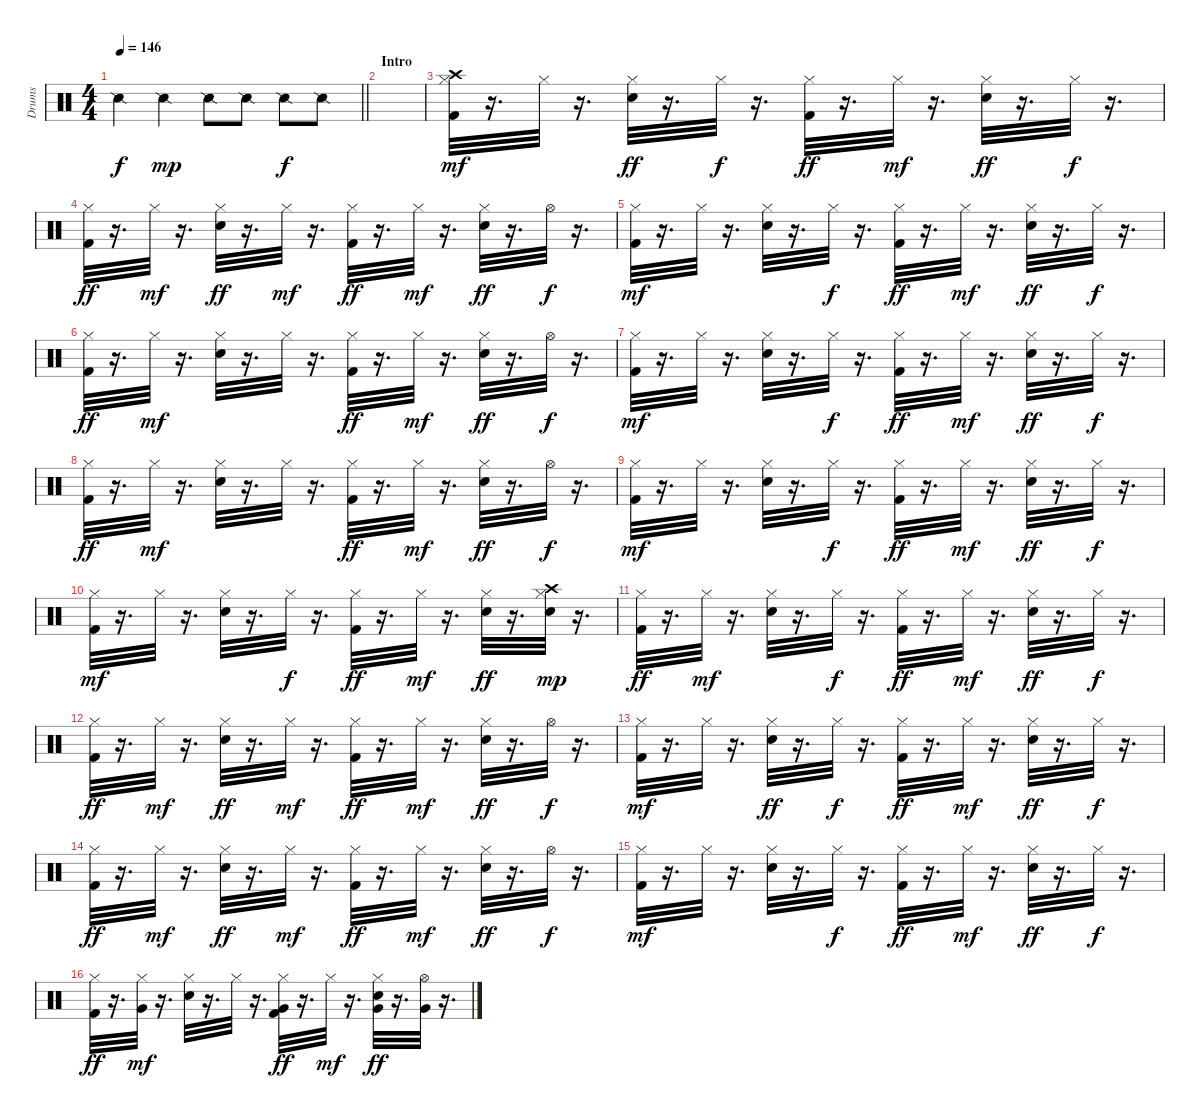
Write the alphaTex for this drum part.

\track ("Drums" "Drums") {instrument percussion}
\staff {score}
\articulation defaults
\ts (4 4)
\tempo 146
\clef neutral
\barLineRight lightlight
\ks c "Snare (side stick) 2".4{dy f} "Snare (side stick) 2".4{dy mp} "Snare (side stick) 2".8 "Snare (side stick) 2".8 "Snare (side stick) 2".8{dy f} "Snare (side stick) 2".8
|
\section ("" "Intro")
|
("Kick (hit) 2" "Hi-Hat (closed)" "Crash high (hit)").32{dy mf} r.16{d} "Hi-Hat (closed)".32 r.16{d} ("Hi-Hat (closed)" "Snare (hit) 2").32{dy ff} r.16{d} "Hi-Hat (closed)".32{dy f} r.16{d} ("Hi-Hat (closed)" "Kick (hit) 2").32{dy ff} r.16{d} "Hi-Hat (closed)".32{dy mf} r.16{d} ("Snare (hit) 2" "Hi-Hat (closed)").32{dy ff} r.16{d} "Hi-Hat (closed)".32{dy f} r.16{d} |
("Kick (hit) 2" "Hi-Hat (closed)").32{dy ff} r.16{d} "Hi-Hat (closed)".32{dy mf} r.16{d} ("Hi-Hat (closed)" "Snare (hit) 2").32{dy ff} r.16{d} "Hi-Hat (closed)".32{dy mf} r.16{d} ("Kick (hit) 2" "Hi-Hat (closed)").32{dy ff} r.16{d} "Hi-Hat (closed)".32{dy mf} r.16{d} ("Snare (hit) 2" "Hi-Hat (closed)").32{dy ff} r.16{d} "Hi-Hat (open)".32{dy f} r.16{d} |
("Kick (hit) 2" "Hi-Hat (closed)").32{dy mf} r.16{d} "Hi-Hat (closed)".32 r.16{d} ("Snare (hit) 2" "Hi-Hat (closed)").32 r.16{d} "Hi-Hat (closed)".32{dy f} r.16{d} ("Hi-Hat (closed)" "Kick (hit) 2").32{dy ff} r.16{d} "Hi-Hat (closed)".32{dy mf} r.16{d} ("Snare (hit) 2" "Hi-Hat (closed)").32{dy ff} r.16{d} "Hi-Hat (closed)".32{dy f} r.16{d} |
("Kick (hit) 2" "Hi-Hat (closed)").32{dy ff} r.16{d} "Hi-Hat (closed)".32{dy mf} r.16{d} ("Snare (hit) 2" "Hi-Hat (closed)").32 r.16{d} "Hi-Hat (closed)".32 r.16{d} ("Hi-Hat (closed)" "Kick (hit) 2").32{dy ff} r.16{d} "Hi-Hat (closed)".32{dy mf} r.16{d} ("Snare (hit) 2" "Hi-Hat (closed)").32{dy ff} r.16{d} "Hi-Hat (open)".32{dy f} r.16{d} |
("Kick (hit) 2" "Hi-Hat (closed)").32{dy mf} r.16{d} "Hi-Hat (closed)".32 r.16{d} ("Snare (hit) 2" "Hi-Hat (closed)").32 r.16{d} "Hi-Hat (closed)".32{dy f} r.16{d} ("Hi-Hat (closed)" "Kick (hit) 2").32{dy ff} r.16{d} "Hi-Hat (closed)".32{dy mf} r.16{d} ("Snare (hit) 2" "Hi-Hat (closed)").32{dy ff} r.16{d} "Hi-Hat (closed)".32{dy f} r.16{d} |
("Kick (hit) 2" "Hi-Hat (closed)").32{dy ff} r.16{d} "Hi-Hat (closed)".32{dy mf} r.16{d} ("Snare (hit) 2" "Hi-Hat (closed)").32 r.16{d} "Hi-Hat (closed)".32 r.16{d} ("Hi-Hat (closed)" "Kick (hit) 2").32{dy ff} r.16{d} "Hi-Hat (closed)".32{dy mf} r.16{d} ("Snare (hit) 2" "Hi-Hat (closed)").32{dy ff} r.16{d} "Hi-Hat (open)".32{dy f} r.16{d} |
("Kick (hit) 2" "Hi-Hat (closed)").32{dy mf} r.16{d} "Hi-Hat (closed)".32 r.16{d} ("Snare (hit) 2" "Hi-Hat (closed)").32 r.16{d} "Hi-Hat (closed)".32{dy f} r.16{d} ("Hi-Hat (closed)" "Kick (hit) 2").32{dy ff} r.16{d} "Hi-Hat (closed)".32{dy mf} r.16{d} ("Hi-Hat (closed)" "Snare (hit) 2").32{dy ff} r.16{d} "Hi-Hat (closed)".32{dy f} r.16{d} |
("Kick (hit) 2" "Hi-Hat (closed)").32{dy mf} r.16{d} "Hi-Hat (closed)".32 r.16{d} ("Snare (hit) 2" "Hi-Hat (closed)").32 r.16{d} "Hi-Hat (closed)".32{dy f} r.16{d} ("Hi-Hat (closed)" "Kick (hit) 2").32{dy ff} r.16{d} "Hi-Hat (closed)".32{dy mf} r.16{d} ("Hi-Hat (closed)" "Snare (hit) 2").32{dy ff} r.16{d} ("Snare (hit) 2" "Hi-Hat (closed)" "Crash high (hit)").32{dy mp} r.16{d} |
("Hi-Hat (closed)" "Kick (hit) 2").32{dy ff} r.16{d} "Hi-Hat (closed)".32{dy mf} r.16{d} ("Snare (hit) 2" "Hi-Hat (closed)").32 r.16{d} "Hi-Hat (closed)".32{dy f} r.16{d} ("Kick (hit) 2" "Hi-Hat (closed)").32{dy ff} r.16{d} "Hi-Hat (closed)".32{dy mf} r.16{d} ("Hi-Hat (closed)" "Snare (hit) 2").32{dy ff} r.16{d} "Hi-Hat (closed)".32{dy f} r.16{d} |
("Hi-Hat (closed)" "Kick (hit) 2").32{dy ff} r.16{d} "Hi-Hat (closed)".32{dy mf} r.16{d} ("Hi-Hat (closed)" "Snare (hit) 2").32{dy ff} r.16{d} "Hi-Hat (closed)".32{dy mf} r.16{d} ("Kick (hit) 2" "Hi-Hat (closed)").32{dy ff} r.16{d} "Hi-Hat (closed)".32{dy mf} r.16{d} ("Hi-Hat (closed)" "Snare (hit) 2").32{dy ff} r.16{d} "Hi-Hat (open)".32{dy f} r.16{d} |
("Kick (hit) 2" "Hi-Hat (closed)").32{dy mf} r.16{d} "Hi-Hat (closed)".32 r.16{d} ("Hi-Hat (closed)" "Snare (hit) 2").32{dy ff} r.16{d} "Hi-Hat (closed)".32{dy f} r.16{d} ("Kick (hit) 2" "Hi-Hat (closed)").32{dy ff} r.16{d} "Hi-Hat (closed)".32{dy mf} r.16{d} ("Hi-Hat (closed)" "Snare (hit) 2").32{dy ff} r.16{d} "Hi-Hat (closed)".32{dy f} r.16{d} |
("Kick (hit) 2" "Hi-Hat (closed)").32{dy ff} r.16{d} "Hi-Hat (closed)".32{dy mf} r.16{d} ("Hi-Hat (closed)" "Snare (hit) 2").32{dy ff} r.16{d} "Hi-Hat (closed)".32{dy mf} r.16{d} ("Kick (hit) 2" "Hi-Hat (closed)").32{dy ff} r.16{d} "Hi-Hat (closed)".32{dy mf} r.16{d} ("Snare (hit) 2" "Hi-Hat (closed)").32{dy ff} r.16{d} "Hi-Hat (open)".32{dy f} r.16{d} |
("Kick (hit) 2" "Hi-Hat (closed)").32{dy mf} r.16{d} "Hi-Hat (closed)".32 r.16{d} ("Snare (hit) 2" "Hi-Hat (closed)").32 r.16{d} "Hi-Hat (closed)".32{dy f} r.16{d} ("Hi-Hat (closed)" "Kick (hit) 2").32{dy ff} r.16{d} "Hi-Hat (closed)".32{dy mf} r.16{d} ("Hi-Hat (closed)" "Snare (hit) 2").32{dy ff} r.16{d} "Hi-Hat (closed)".32{dy f} r.16{d} |
("Hi-Hat (closed)" "Kick (hit) 2").32{dy ff} r.16{d} ("Hi-Hat (closed)" "Very Low Tom (hit)").32{dy mf} r.16{d} ("Snare (hit) 2" "Hi-Hat (closed)").32 r.16{d} "Hi-Hat (closed)".32 r.16{d} ("Kick (hit) 2" "Hi-Hat (closed)" "Very Low Tom (hit)").32{dy ff} r.16{d} "Hi-Hat (closed)".32{dy mf} r.16{d} ("Hi-Hat (closed)" "Snare (hit) 2" "Very Low Tom (hit)").32{dy ff} r.16{d} ("Very Low Tom (hit)" "Hi-Hat (open)").32 r.16{d}
